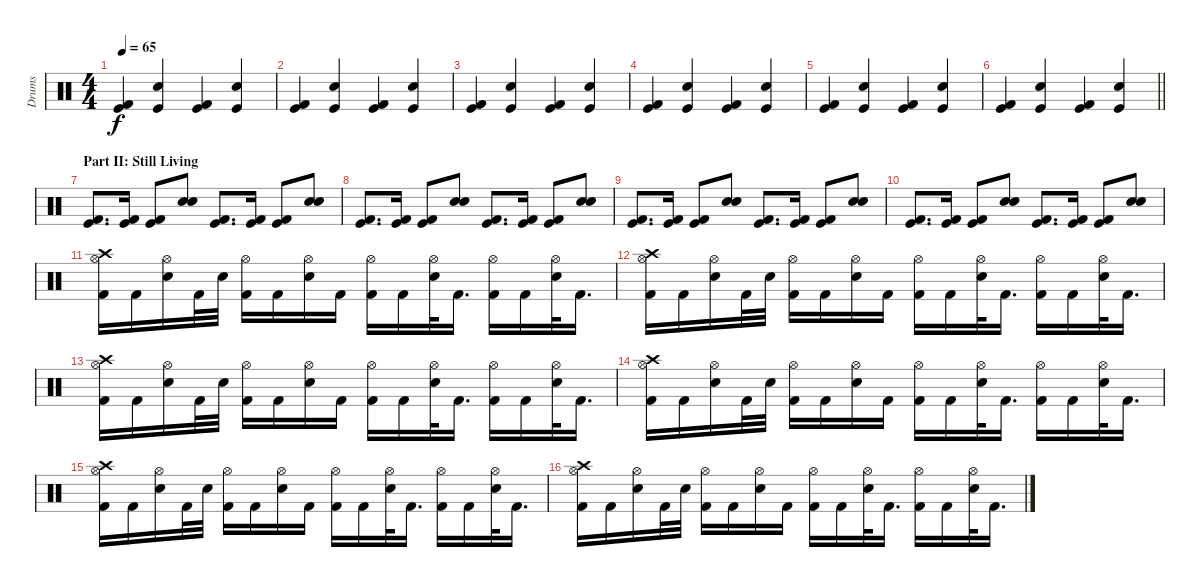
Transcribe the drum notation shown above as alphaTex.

\track ("Drums" "Drums") {instrument percussion}
\staff {score}
\articulation defaults
\ts (4 4)
\tempo 65
\clef neutral
\ks c
("Kick (hit)" "Kick (hit) 2").4{dy f} ("Kick (hit)" "Snare (hit) 2").4 ("Kick (hit)" "Kick (hit) 2").4 ("Kick (hit)" "Snare (hit) 2").4 |
("Kick (hit)" "Kick (hit) 2").4 ("Kick (hit)" "Snare (hit) 2").4 ("Kick (hit)" "Kick (hit) 2").4 ("Kick (hit)" "Snare (hit) 2").4 |
("Kick (hit)" "Kick (hit) 2").4 ("Kick (hit)" "Snare (hit) 2").4 ("Kick (hit)" "Kick (hit) 2").4 ("Kick (hit)" "Snare (hit) 2").4 |
("Kick (hit)" "Kick (hit) 2").4 ("Kick (hit)" "Snare (hit) 2").4 ("Kick (hit)" "Kick (hit) 2").4 ("Kick (hit)" "Snare (hit) 2").4 |
("Kick (hit)" "Kick (hit) 2").4 ("Kick (hit)" "Snare (hit) 2").4 ("Kick (hit)" "Kick (hit) 2").4 ("Kick (hit)" "Snare (hit) 2").4 |
\barLineRight lightlight
("Kick (hit)" "Kick (hit) 2").4 ("Kick (hit)" "Snare (hit) 2").4 ("Kick (hit)" "Kick (hit) 2").4 ("Kick (hit)" "Snare (hit) 2").4 |
\section ("" "Part II: Still Living")
("Kick (hit)" "Kick (hit) 2").8{d} ("Kick (hit)" "Kick (hit) 2").16 ("Kick (hit)" "Kick (hit) 2").8 ("Electric Snare (hit)" "Snare (hit) 2").8 ("Kick (hit)" "Kick (hit) 2").8{d} ("Kick (hit)" "Kick (hit) 2").16 ("Kick (hit)" "Kick (hit) 2").8 ("Electric Snare (hit)" "Snare (hit) 2").8 |
("Kick (hit)" "Kick (hit) 2").8{d} ("Kick (hit)" "Kick (hit) 2").16 ("Kick (hit)" "Kick (hit) 2").8 ("Electric Snare (hit)" "Snare (hit) 2").8 ("Kick (hit)" "Kick (hit) 2").8{d} ("Kick (hit)" "Kick (hit) 2").16 ("Kick (hit)" "Kick (hit) 2").8 ("Electric Snare (hit)" "Snare (hit) 2").8 |
("Kick (hit)" "Kick (hit) 2").8{d} ("Kick (hit)" "Kick (hit) 2").16 ("Kick (hit)" "Kick (hit) 2").8 ("Electric Snare (hit)" "Snare (hit) 2").8 ("Kick (hit)" "Kick (hit) 2").8{d} ("Kick (hit)" "Kick (hit) 2").16 ("Kick (hit)" "Kick (hit) 2").8 ("Electric Snare (hit)" "Snare (hit) 2").8 |
("Kick (hit)" "Kick (hit) 2").8{d} ("Kick (hit)" "Kick (hit) 2").16 ("Kick (hit)" "Kick (hit) 2").8 ("Electric Snare (hit)" "Snare (hit) 2").8 ("Kick (hit)" "Kick (hit) 2").8{d} ("Kick (hit)" "Kick (hit) 2").16 ("Kick (hit)" "Kick (hit) 2").8 ("Electric Snare (hit)" "Snare (hit) 2").8 |
("Crash high (hit)" "Hi-Hat (open)" "Kick (hit) 2").16 "Kick (hit) 2".16 ("Hi-Hat (open)" "Snare (hit) 2").16 "Kick (hit) 2".32 "Snare (hit) 2".32 ("Hi-Hat (open)" "Kick (hit) 2").16 "Kick (hit) 2".16 ("Hi-Hat (open)" "Snare (hit) 2").16 "Kick (hit) 2".16 ("Hi-Hat (open)" "Kick (hit) 2").16 "Kick (hit) 2".16 ("Hi-Hat (open)" "Snare (hit) 2").32 "Kick (hit) 2".16{d} ("Hi-Hat (open)" "Kick (hit) 2").16 "Kick (hit) 2".16 ("Hi-Hat (open)" "Snare (hit) 2").32 "Kick (hit) 2".16{d} |
("Crash high (hit)" "Hi-Hat (open)" "Kick (hit) 2").16 "Kick (hit) 2".16 ("Hi-Hat (open)" "Snare (hit) 2").16 "Kick (hit) 2".32 "Snare (hit) 2".32 ("Hi-Hat (open)" "Kick (hit) 2").16 "Kick (hit) 2".16 ("Hi-Hat (open)" "Snare (hit) 2").16 "Kick (hit) 2".16 ("Hi-Hat (open)" "Kick (hit) 2").16 "Kick (hit) 2".16 ("Hi-Hat (open)" "Snare (hit) 2").32 "Kick (hit) 2".16{d} ("Hi-Hat (open)" "Kick (hit) 2").16 "Kick (hit) 2".16 ("Hi-Hat (open)" "Snare (hit) 2").32 "Kick (hit) 2".16{d} |
("Crash high (hit)" "Hi-Hat (open)" "Kick (hit) 2").16 "Kick (hit) 2".16 ("Hi-Hat (open)" "Snare (hit) 2").16 "Kick (hit) 2".32 "Snare (hit) 2".32 ("Hi-Hat (open)" "Kick (hit) 2").16 "Kick (hit) 2".16 ("Hi-Hat (open)" "Snare (hit) 2").16 "Kick (hit) 2".16 ("Hi-Hat (open)" "Kick (hit) 2").16 "Kick (hit) 2".16 ("Hi-Hat (open)" "Snare (hit) 2").32 "Kick (hit) 2".16{d} ("Hi-Hat (open)" "Kick (hit) 2").16 "Kick (hit) 2".16 ("Hi-Hat (open)" "Snare (hit) 2").32 "Kick (hit) 2".16{d} |
("Crash high (hit)" "Hi-Hat (open)" "Kick (hit) 2").16 "Kick (hit) 2".16 ("Hi-Hat (open)" "Snare (hit) 2").16 "Kick (hit) 2".32 "Snare (hit) 2".32 ("Hi-Hat (open)" "Kick (hit) 2").16 "Kick (hit) 2".16 ("Hi-Hat (open)" "Snare (hit) 2").16 "Kick (hit) 2".16 ("Hi-Hat (open)" "Kick (hit) 2").16 "Kick (hit) 2".16 ("Hi-Hat (open)" "Snare (hit) 2").32 "Kick (hit) 2".16{d} ("Hi-Hat (open)" "Kick (hit) 2").16 "Kick (hit) 2".16 ("Hi-Hat (open)" "Snare (hit) 2").32 "Kick (hit) 2".16{d} |
("Crash high (hit)" "Hi-Hat (open)" "Kick (hit) 2").16 "Kick (hit) 2".16 ("Hi-Hat (open)" "Snare (hit) 2").16 "Kick (hit) 2".32 "Snare (hit) 2".32 ("Hi-Hat (open)" "Kick (hit) 2").16 "Kick (hit) 2".16 ("Hi-Hat (open)" "Snare (hit) 2").16 "Kick (hit) 2".16 ("Hi-Hat (open)" "Kick (hit) 2").16 "Kick (hit) 2".16 ("Hi-Hat (open)" "Snare (hit) 2").32 "Kick (hit) 2".16{d} ("Hi-Hat (open)" "Kick (hit) 2").16 "Kick (hit) 2".16 ("Hi-Hat (open)" "Snare (hit) 2").32 "Kick (hit) 2".16{d} |
("Crash high (hit)" "Hi-Hat (open)" "Kick (hit) 2").16 "Kick (hit) 2".16 ("Hi-Hat (open)" "Snare (hit) 2").16 "Kick (hit) 2".32 "Snare (hit) 2".32 ("Hi-Hat (open)" "Kick (hit) 2").16 "Kick (hit) 2".16 ("Hi-Hat (open)" "Snare (hit) 2").16 "Kick (hit) 2".16 ("Hi-Hat (open)" "Kick (hit) 2").16 "Kick (hit) 2".16 ("Hi-Hat (open)" "Snare (hit) 2").32 "Kick (hit) 2".16{d} ("Hi-Hat (open)" "Kick (hit) 2").16 "Kick (hit) 2".16 ("Hi-Hat (open)" "Snare (hit) 2").32 "Kick (hit) 2".16{d}
